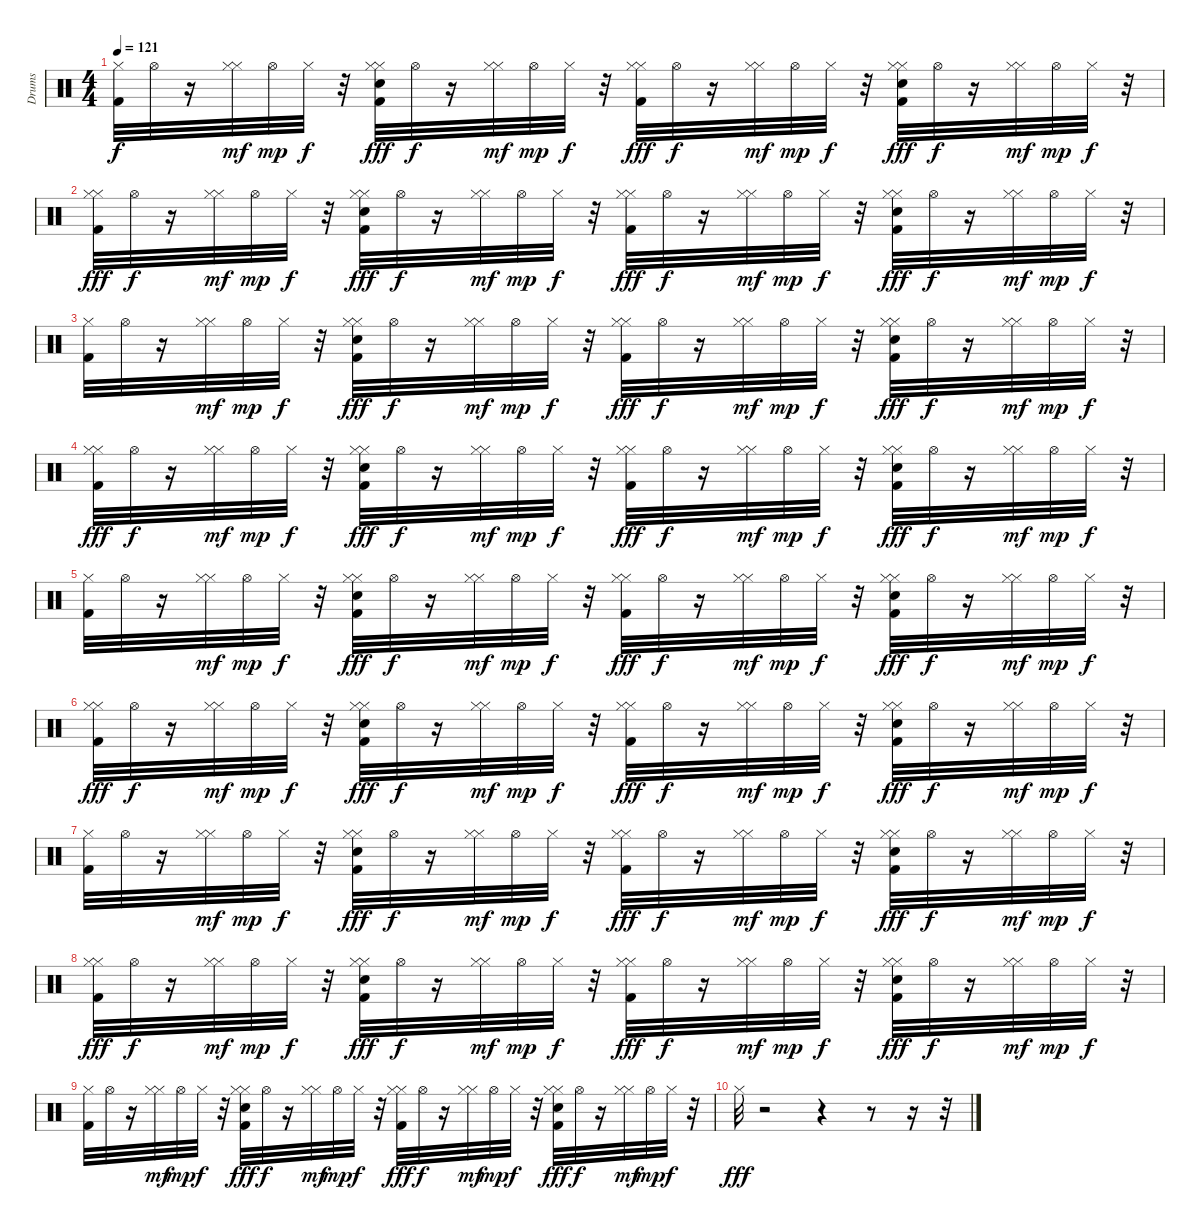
\track ("Drums" "Drums") {instrument percussion}
\staff {score}
\articulation defaults
\ts (4 4)
\tempo 121
\clef neutral
\ks c
("Kick (hit) 2" "Hi-Hat (closed)").32{dy f} "Hi-Hat (open)".32 r.16 ("Hi-Hat (closed)" "Hi-Hat (closed)").32{dy mf} "Hi-Hat (open)".32{dy mp} "Hi-Hat (closed)".32{dy f} r.32 ("Kick (hit) 2" "Hi-Hat (closed)" "Snare (hit) 2" "Hi-Hat (closed)").32{dy fff} "Hi-Hat (open)".32{dy f} r.16 ("Hi-Hat (closed)" "Hi-Hat (closed)").32{dy mf} "Hi-Hat (open)".32{dy mp} "Hi-Hat (closed)".32{dy f volume 12} r.32 ("Hi-Hat (closed)" "Kick (hit) 2" "Hi-Hat (closed)").32{dy fff} "Hi-Hat (open)".32{dy f} r.16 ("Hi-Hat (closed)" "Hi-Hat (closed)").32{dy mf} "Hi-Hat (open)".32{dy mp} "Hi-Hat (closed)".32{dy f} r.32 ("Kick (hit) 2" "Hi-Hat (closed)" "Snare (hit) 2" "Hi-Hat (closed)").32{dy fff} "Hi-Hat (open)".32{dy f volume 12} r.16 ("Hi-Hat (closed)" "Hi-Hat (closed)").32{dy mf volume 12} "Hi-Hat (open)".32{dy mp} "Hi-Hat (closed)".32{dy f} r.32 |
("Hi-Hat (closed)" "Kick (hit) 2" "Hi-Hat (closed)").32{dy fff} "Hi-Hat (open)".32{dy f} r.16 ("Hi-Hat (closed)" "Hi-Hat (closed)").32{dy mf} "Hi-Hat (open)".32{dy mp} "Hi-Hat (closed)".32{dy f} r.32 ("Kick (hit) 2" "Hi-Hat (closed)" "Snare (hit) 2" "Hi-Hat (closed)").32{dy fff volume 12} "Hi-Hat (open)".32{dy f} r.16 ("Hi-Hat (closed)" "Hi-Hat (closed)").32{dy mf volume 11} "Hi-Hat (open)".32{dy mp} "Hi-Hat (closed)".32{dy f volume 11} r.32 ("Hi-Hat (closed)" "Kick (hit) 2" "Hi-Hat (closed)").32{dy fff} "Hi-Hat (open)".32{dy f} r.16 ("Hi-Hat (closed)" "Hi-Hat (closed)").32{dy mf volume 11} "Hi-Hat (open)".32{dy mp} "Hi-Hat (closed)".32{dy f} r.32 ("Kick (hit) 2" "Hi-Hat (closed)" "Snare (hit) 2" "Hi-Hat (closed)").32{dy fff} "Hi-Hat (open)".32{dy f} r.16 ("Hi-Hat (closed)" "Hi-Hat (closed)").32{dy mf volume 11} "Hi-Hat (open)".32{dy mp volume 11} "Hi-Hat (closed)".32{dy f volume 10} r.32 |
("Kick (hit) 2" "Hi-Hat (closed)").32 "Hi-Hat (open)".32 r.16 ("Hi-Hat (closed)" "Hi-Hat (closed)").32{dy mf} "Hi-Hat (open)".32{dy mp} "Hi-Hat (closed)".32{dy f} r.32 ("Kick (hit) 2" "Hi-Hat (closed)" "Snare (hit) 2" "Hi-Hat (closed)").32{dy fff volume 10} "Hi-Hat (open)".32{dy f} r.16 ("Hi-Hat (closed)" "Hi-Hat (closed)").32{dy mf} "Hi-Hat (open)".32{dy mp} "Hi-Hat (closed)".32{dy f volume 10} r.32 ("Hi-Hat (closed)" "Kick (hit) 2" "Hi-Hat (closed)").32{dy fff} "Hi-Hat (open)".32{dy f} r.16 ("Hi-Hat (closed)" "Hi-Hat (closed)").32{dy mf volume 10} "Hi-Hat (open)".32{dy mp} "Hi-Hat (closed)".32{dy f} r.32 ("Kick (hit) 2" "Hi-Hat (closed)" "Snare (hit) 2" "Hi-Hat (closed)").32{dy fff} "Hi-Hat (open)".32{dy f} r.16 ("Hi-Hat (closed)" "Hi-Hat (closed)").32{dy mf volume 9} "Hi-Hat (open)".32{dy mp} "Hi-Hat (closed)".32{dy f} r.32 |
("Hi-Hat (closed)" "Kick (hit) 2" "Hi-Hat (closed)").32{dy fff volume 9} "Hi-Hat (open)".32{dy f} r.16 ("Hi-Hat (closed)" "Hi-Hat (closed)").32{dy mf volume 9} "Hi-Hat (open)".32{dy mp} "Hi-Hat (closed)".32{dy f} r.32 ("Kick (hit) 2" "Hi-Hat (closed)" "Snare (hit) 2" "Hi-Hat (closed)").32{dy fff} "Hi-Hat (open)".32{dy f volume 9} r.16 ("Hi-Hat (closed)" "Hi-Hat (closed)").32{dy mf} "Hi-Hat (open)".32{dy mp} "Hi-Hat (closed)".32{dy f} r.32 ("Hi-Hat (closed)" "Kick (hit) 2" "Hi-Hat (closed)").32{dy fff} "Hi-Hat (open)".32{dy f} r.16 ("Hi-Hat (closed)" "Hi-Hat (closed)").32{dy mf} "Hi-Hat (open)".32{dy mp} "Hi-Hat (closed)".32{dy f} r.32 ("Kick (hit) 2" "Hi-Hat (closed)" "Snare (hit) 2" "Hi-Hat (closed)").32{dy fff} "Hi-Hat (open)".32{dy f} r.16 ("Hi-Hat (closed)" "Hi-Hat (closed)").32{dy mf} "Hi-Hat (open)".32{dy mp} "Hi-Hat (closed)".32{dy f volume 9} r.32 |
("Kick (hit) 2" "Hi-Hat (closed)").32 "Hi-Hat (open)".32 r.16 ("Hi-Hat (closed)" "Hi-Hat (closed)").32{dy mf volume 9} "Hi-Hat (open)".32{dy mp} "Hi-Hat (closed)".32{dy f volume 8} r.32 ("Kick (hit) 2" "Hi-Hat (closed)" "Snare (hit) 2" "Hi-Hat (closed)").32{dy fff} "Hi-Hat (open)".32{dy f} r.16 ("Hi-Hat (closed)" "Hi-Hat (closed)").32{dy mf} "Hi-Hat (open)".32{dy mp} "Hi-Hat (closed)".32{dy f} r.32 ("Hi-Hat (closed)" "Kick (hit) 2" "Hi-Hat (closed)").32{dy fff} "Hi-Hat (open)".32{dy f volume 8} r.16 ("Hi-Hat (closed)" "Hi-Hat (closed)").32{dy mf} "Hi-Hat (open)".32{dy mp} "Hi-Hat (closed)".32{dy f} r.32 ("Kick (hit) 2" "Hi-Hat (closed)" "Snare (hit) 2" "Hi-Hat (closed)").32{dy fff} "Hi-Hat (open)".32{dy f volume 8} r.16 ("Hi-Hat (closed)" "Hi-Hat (closed)").32{dy mf volume 8} "Hi-Hat (open)".32{dy mp} "Hi-Hat (closed)".32{dy f} r.32 |
("Hi-Hat (closed)" "Kick (hit) 2" "Hi-Hat (closed)").32{dy fff} "Hi-Hat (open)".32{dy f} r.16 ("Hi-Hat (closed)" "Hi-Hat (closed)").32{dy mf} "Hi-Hat (open)".32{dy mp volume 8} "Hi-Hat (closed)".32{dy f} r.32 ("Kick (hit) 2" "Hi-Hat (closed)" "Snare (hit) 2" "Hi-Hat (closed)").32{dy fff} "Hi-Hat (open)".32{dy f} r.16 ("Hi-Hat (closed)" "Hi-Hat (closed)").32{dy mf} "Hi-Hat (open)".32{dy mp} "Hi-Hat (closed)".32{dy f} r.32 ("Hi-Hat (closed)" "Kick (hit) 2" "Hi-Hat (closed)").32{dy fff volume 7} "Hi-Hat (open)".32{dy f} r.16 ("Hi-Hat (closed)" "Hi-Hat (closed)").32{dy mf} "Hi-Hat (open)".32{dy mp} "Hi-Hat (closed)".32{dy f} r.32 ("Kick (hit) 2" "Hi-Hat (closed)" "Snare (hit) 2" "Hi-Hat (closed)").32{dy fff volume 7} "Hi-Hat (open)".32{dy f} r.16 ("Hi-Hat (closed)" "Hi-Hat (closed)").32{dy mf volume 7} "Hi-Hat (open)".32{dy mp} "Hi-Hat (closed)".32{dy f volume 7} r.32 |
("Kick (hit) 2" "Hi-Hat (closed)").32 "Hi-Hat (open)".32 r.16 ("Hi-Hat (closed)" "Hi-Hat (closed)").32{dy mf} "Hi-Hat (open)".32{dy mp} "Hi-Hat (closed)".32{dy f volume 7} r.32 ("Kick (hit) 2" "Hi-Hat (closed)" "Snare (hit) 2" "Hi-Hat (closed)").32{dy fff volume 7} "Hi-Hat (open)".32{dy f} r.16 ("Hi-Hat (closed)" "Hi-Hat (closed)").32{dy mf volume 6} "Hi-Hat (open)".32{dy mp} "Hi-Hat (closed)".32{dy f} r.32 ("Hi-Hat (closed)" "Kick (hit) 2" "Hi-Hat (closed)").32{dy fff} "Hi-Hat (open)".32{dy f} r.16 ("Hi-Hat (closed)" "Hi-Hat (closed)").32{dy mf} "Hi-Hat (open)".32{dy mp} "Hi-Hat (closed)".32{dy f} r.32 ("Kick (hit) 2" "Hi-Hat (closed)" "Snare (hit) 2" "Hi-Hat (closed)").32{dy fff} "Hi-Hat (open)".32{dy f} r.16 ("Hi-Hat (closed)" "Hi-Hat (closed)").32{dy mf volume 6} "Hi-Hat (open)".32{dy mp} "Hi-Hat (closed)".32{dy f volume 6} r.32 |
("Hi-Hat (closed)" "Kick (hit) 2" "Hi-Hat (closed)").32{dy fff} "Hi-Hat (open)".32{dy f} r.16 ("Hi-Hat (closed)" "Hi-Hat (closed)").32{dy mf volume 5} "Hi-Hat (open)".32{dy mp} "Hi-Hat (closed)".32{dy f} r.32 ("Kick (hit) 2" "Hi-Hat (closed)" "Snare (hit) 2" "Hi-Hat (closed)").32{dy fff} "Hi-Hat (open)".32{dy f} r.16 ("Hi-Hat (closed)" "Hi-Hat (closed)").32{dy mf volume 5} "Hi-Hat (open)".32{dy mp} "Hi-Hat (closed)".32{dy f volume 5} r.32 ("Hi-Hat (closed)" "Kick (hit) 2" "Hi-Hat (closed)").32{dy fff volume 5} "Hi-Hat (open)".32{dy f} r.16 ("Hi-Hat (closed)" "Hi-Hat (closed)").32{dy mf volume 5} "Hi-Hat (open)".32{dy mp} "Hi-Hat (closed)".32{dy f} r.32 ("Kick (hit) 2" "Hi-Hat (closed)" "Snare (hit) 2" "Hi-Hat (closed)").32{dy fff} "Hi-Hat (open)".32{dy f volume 4} r.16 ("Hi-Hat (closed)" "Hi-Hat (closed)").32{dy mf volume 4} "Hi-Hat (open)".32{dy mp} "Hi-Hat (closed)".32{dy f} r.32 |
("Kick (hit) 2" "Hi-Hat (closed)").32{volume 4} "Hi-Hat (open)".32 r.16 ("Hi-Hat (closed)" "Hi-Hat (closed)").32{dy mf} "Hi-Hat (open)".32{dy mp} "Hi-Hat (closed)".32{dy f} r.32 ("Kick (hit) 2" "Hi-Hat (closed)" "Snare (hit) 2" "Hi-Hat (closed)").32{dy fff} "Hi-Hat (open)".32{dy f volume 4} r.16 ("Hi-Hat (closed)" "Hi-Hat (closed)").32{dy mf volume 3} "Hi-Hat (open)".32{dy mp} "Hi-Hat (closed)".32{dy f volume 3} r.32 ("Hi-Hat (closed)" "Kick (hit) 2" "Hi-Hat (closed)").32{dy fff} "Hi-Hat (open)".32{dy f} r.16 ("Hi-Hat (closed)" "Hi-Hat (closed)").32{dy mf} "Hi-Hat (open)".32{dy mp volume 3} "Hi-Hat (closed)".32{dy f} r.32 ("Kick (hit) 2" "Hi-Hat (closed)" "Snare (hit) 2" "Hi-Hat (closed)").32{dy fff} "Hi-Hat (open)".32{dy f} r.16 ("Hi-Hat (closed)" "Hi-Hat (closed)").32{dy mf} "Hi-Hat (open)".32{dy mp volume 3} "Hi-Hat (closed)".32{dy f} r.32 |
"Hi-Hat (closed)".32{dy fff volume 3} r.2 r.4 r.8 r.16 r.32
